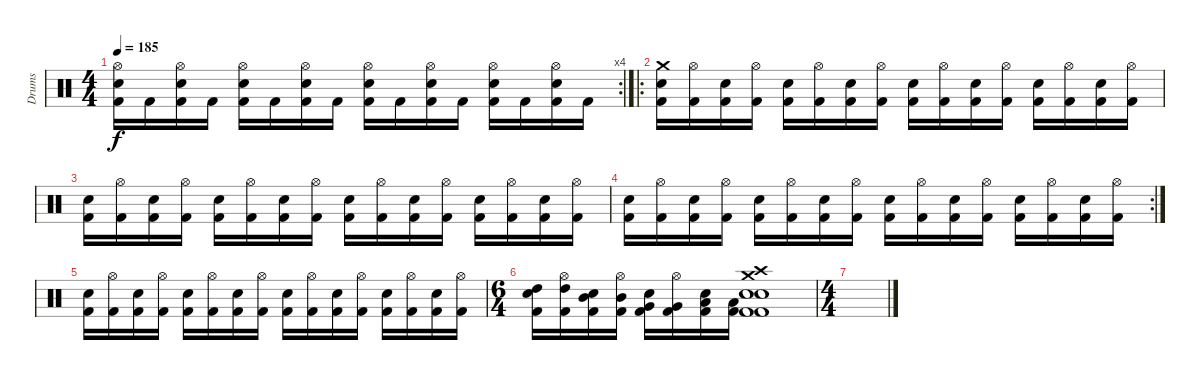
\track ("Drums" "Drums") {instrument percussion}
\staff {score}
\articulation defaults
\rc 4
\ts (4 4)
\tempo 185
\clef neutral
\ks c
("Hi-Hat (open)" "Snare (hit) 2" "Kick (hit) 2").16{dy f} "Kick (hit) 2".16 ("Hi-Hat (open)" "Snare (hit) 2" "Kick (hit) 2").16 "Kick (hit) 2".16 ("Hi-Hat (open)" "Snare (hit) 2" "Kick (hit) 2").16 "Kick (hit) 2".16 ("Hi-Hat (open)" "Snare (hit) 2" "Kick (hit) 2").16 "Kick (hit) 2".16 ("Hi-Hat (open)" "Snare (hit) 2" "Kick (hit) 2").16 "Kick (hit) 2".16 ("Hi-Hat (open)" "Snare (hit) 2" "Kick (hit) 2").16 "Kick (hit) 2".16 ("Hi-Hat (open)" "Snare (hit) 2" "Kick (hit) 2").16 "Kick (hit) 2".16 ("Hi-Hat (open)" "Snare (hit) 2" "Kick (hit) 2").16 "Kick (hit) 2".16 |
\ro
("Crash medium (hit)" "Snare (hit) 2" "Kick (hit) 2").16 ("Hi-Hat (open)" "Kick (hit) 2").16 ("Snare (hit) 2" "Kick (hit) 2").16 ("Hi-Hat (open)" "Kick (hit) 2").16 ("Snare (hit) 2" "Kick (hit) 2").16 ("Hi-Hat (open)" "Kick (hit) 2").16 ("Snare (hit) 2" "Kick (hit) 2").16 ("Hi-Hat (open)" "Kick (hit) 2").16 ("Snare (hit) 2" "Kick (hit) 2").16 ("Hi-Hat (open)" "Kick (hit) 2").16 ("Snare (hit) 2" "Kick (hit) 2").16 ("Hi-Hat (open)" "Kick (hit) 2").16 ("Snare (hit) 2" "Kick (hit) 2").16 ("Hi-Hat (open)" "Kick (hit) 2").16 ("Snare (hit) 2" "Kick (hit) 2").16 ("Hi-Hat (open)" "Kick (hit) 2").16 |
("Snare (hit) 2" "Kick (hit) 2").16 ("Hi-Hat (open)" "Kick (hit) 2").16 ("Snare (hit) 2" "Kick (hit) 2").16 ("Hi-Hat (open)" "Kick (hit) 2").16 ("Snare (hit) 2" "Kick (hit) 2").16 ("Hi-Hat (open)" "Kick (hit) 2").16 ("Snare (hit) 2" "Kick (hit) 2").16 ("Hi-Hat (open)" "Kick (hit) 2").16 ("Snare (hit) 2" "Kick (hit) 2").16 ("Hi-Hat (open)" "Kick (hit) 2").16 ("Snare (hit) 2" "Kick (hit) 2").16 ("Hi-Hat (open)" "Kick (hit) 2").16 ("Snare (hit) 2" "Kick (hit) 2").16 ("Hi-Hat (open)" "Kick (hit) 2").16 ("Snare (hit) 2" "Kick (hit) 2").16 ("Hi-Hat (open)" "Kick (hit) 2").16 |
\rc 2
("Snare (hit) 2" "Kick (hit) 2").16 ("Hi-Hat (open)" "Kick (hit) 2").16 ("Snare (hit) 2" "Kick (hit) 2").16 ("Hi-Hat (open)" "Kick (hit) 2").16 ("Snare (hit) 2" "Kick (hit) 2").16 ("Hi-Hat (open)" "Kick (hit) 2").16 ("Snare (hit) 2" "Kick (hit) 2").16 ("Hi-Hat (open)" "Kick (hit) 2").16 ("Snare (hit) 2" "Kick (hit) 2").16 ("Hi-Hat (open)" "Kick (hit) 2").16 ("Snare (hit) 2" "Kick (hit) 2").16 ("Hi-Hat (open)" "Kick (hit) 2").16 ("Snare (hit) 2" "Kick (hit) 2").16 ("Hi-Hat (open)" "Kick (hit) 2").16 ("Snare (hit) 2" "Kick (hit) 2").16 ("Hi-Hat (open)" "Kick (hit) 2").16 |
("Snare (hit) 2" "Kick (hit) 2").16 ("Hi-Hat (open)" "Kick (hit) 2").16 ("Snare (hit) 2" "Kick (hit) 2").16 ("Hi-Hat (open)" "Kick (hit) 2").16 ("Snare (hit) 2" "Kick (hit) 2").16 ("Hi-Hat (open)" "Kick (hit) 2").16 ("Snare (hit) 2" "Kick (hit) 2").16 ("Hi-Hat (open)" "Kick (hit) 2").16 ("Snare (hit) 2" "Kick (hit) 2").16 ("Hi-Hat (open)" "Kick (hit) 2").16 ("Snare (hit) 2" "Kick (hit) 2").16 ("Hi-Hat (open)" "Kick (hit) 2").16 ("Snare (hit) 2" "Kick (hit) 2").16 ("Hi-Hat (open)" "Kick (hit) 2").16 ("Snare (hit) 2" "Kick (hit) 2").16 ("Hi-Hat (open)" "Kick (hit) 2").16 |
\ts (6 4)
("Snare (hit) 2" "High Tom (hit)" "Kick (hit) 2").16 ("Hi-Hat (open)" "High Tom (hit)" "Kick (hit) 2").16 ("Snare (hit) 2" "Mid Tom (hit)" "Kick (hit) 2").16 ("Hi-Hat (open)" "Mid Tom (hit)" "Kick (hit) 2").16 ("Snare (hit) 2" "Very Low Tom (hit)" "Kick (hit) 2").16 ("Hi-Hat (open)" "Very Low Tom (hit)" "Kick (hit) 2").16 ("Snare (hit) 2" "Low Floor Tom (hit)" "Kick (hit) 2").16 ("Low Floor Tom (hit)" "Kick (hit) 2").16 ("Crash high (hit)" "Crash medium (hit)" "Snare (hit) 2" "Snare (hit) 2" "Kick (hit) 2" "Kick (hit) 2").1 |
\ts (4 4)
